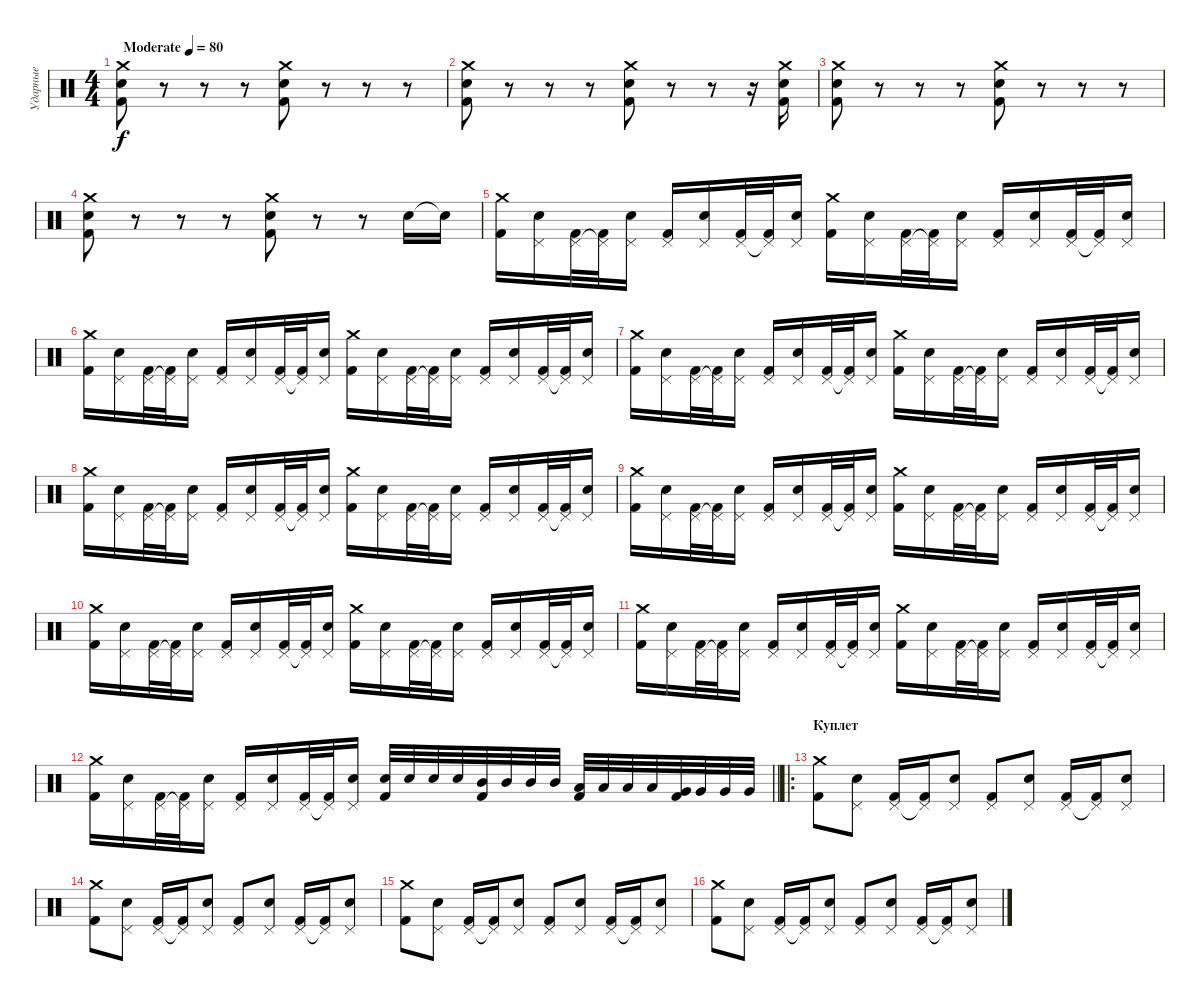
\track ("Ударные" "Ударные") {instrument percussion}
\staff {score}
\articulation defaults
\ts (4 4)
\tempo (80 "Moderate")
\clef neutral
\ks c
("Crash medium (hit)" "Kick (hit) 2" "Snare (hit) 2").8{dy f} r.8 r.8 r.8 ("Crash medium (hit)" "Kick (hit) 2" "Snare (hit) 2").8 r.8 r.8 r.8 |
("Crash medium (hit)" "Kick (hit) 2" "Snare (hit) 2").8 r.8 r.8 r.8 ("Crash medium (hit)" "Kick (hit) 2" "Snare (hit) 2").8 r.8 r.8 r.16 ("Crash medium (hit)" "Kick (hit) 2" "Snare (hit) 2").16 |
("Crash medium (hit)" "Kick (hit) 2" "Snare (hit) 2").8 r.8 r.8 r.8 ("Crash medium (hit)" "Kick (hit) 2" "Snare (hit) 2").8 r.8 r.8 r.8 |
("Crash medium (hit)" "Kick (hit) 2" "Snare (hit) 2").8 r.8 r.8 r.8 ("Crash medium (hit)" "Kick (hit) 2" "Snare (hit) 2").8 r.8 r.8 "Snare (hit) 2".16 "Electric Snare (hit)"{t}.16 |
("Crash medium (hit)" "Kick (hit) 2").16 ("Pedal Hi-Hat (hit)" "Snare (hit) 2").16 ("Pedal Hi-Hat (hit)" "Kick (hit) 2").32 ("Pedal Hi-Hat (hit)"{t} "Kick (hit) 2").32 ("Pedal Hi-Hat (hit)" "Snare (hit) 2").16 ("Pedal Hi-Hat (hit)" "Kick (hit) 2").16 ("Pedal Hi-Hat (hit)" "Snare (hit) 2").16 ("Pedal Hi-Hat (hit)" "Kick (hit) 2").32 ("Pedal Hi-Hat (hit)"{t} "Kick (hit) 2").32 ("Pedal Hi-Hat (hit)" "Snare (hit) 2").16 ("Crash medium (hit)" "Kick (hit) 2").16 ("Pedal Hi-Hat (hit)" "Snare (hit) 2").16 ("Pedal Hi-Hat (hit)" "Kick (hit) 2").32 ("Pedal Hi-Hat (hit)"{t} "Kick (hit) 2").32 ("Pedal Hi-Hat (hit)" "Snare (hit) 2").16 ("Pedal Hi-Hat (hit)" "Kick (hit) 2").16 ("Pedal Hi-Hat (hit)" "Snare (hit) 2").16 ("Pedal Hi-Hat (hit)" "Kick (hit) 2").32 ("Pedal Hi-Hat (hit)"{t} "Kick (hit) 2").32 ("Pedal Hi-Hat (hit)" "Snare (hit) 2").16 |
("Crash medium (hit)" "Kick (hit) 2").16 ("Pedal Hi-Hat (hit)" "Snare (hit) 2").16 ("Pedal Hi-Hat (hit)" "Kick (hit) 2").32 ("Pedal Hi-Hat (hit)"{t} "Kick (hit) 2").32 ("Pedal Hi-Hat (hit)" "Snare (hit) 2").16 ("Pedal Hi-Hat (hit)" "Kick (hit) 2").16 ("Pedal Hi-Hat (hit)" "Snare (hit) 2").16 ("Pedal Hi-Hat (hit)" "Kick (hit) 2").32 ("Pedal Hi-Hat (hit)"{t} "Kick (hit) 2").32 ("Pedal Hi-Hat (hit)" "Snare (hit) 2").16 ("Crash medium (hit)" "Kick (hit) 2").16 ("Pedal Hi-Hat (hit)" "Snare (hit) 2").16 ("Pedal Hi-Hat (hit)" "Kick (hit) 2").32 ("Pedal Hi-Hat (hit)"{t} "Kick (hit) 2").32 ("Pedal Hi-Hat (hit)" "Snare (hit) 2").16 ("Pedal Hi-Hat (hit)" "Kick (hit) 2").16 ("Pedal Hi-Hat (hit)" "Snare (hit) 2").16 ("Pedal Hi-Hat (hit)" "Kick (hit) 2").32 ("Pedal Hi-Hat (hit)"{t} "Kick (hit) 2").32 ("Pedal Hi-Hat (hit)" "Snare (hit) 2").16 |
("Crash medium (hit)" "Kick (hit) 2").16 ("Pedal Hi-Hat (hit)" "Snare (hit) 2").16 ("Pedal Hi-Hat (hit)" "Kick (hit) 2").32 ("Pedal Hi-Hat (hit)"{t} "Kick (hit) 2").32 ("Pedal Hi-Hat (hit)" "Snare (hit) 2").16 ("Pedal Hi-Hat (hit)" "Kick (hit) 2").16 ("Pedal Hi-Hat (hit)" "Snare (hit) 2").16 ("Pedal Hi-Hat (hit)" "Kick (hit) 2").32 ("Pedal Hi-Hat (hit)"{t} "Kick (hit) 2").32 ("Pedal Hi-Hat (hit)" "Snare (hit) 2").16 ("Crash medium (hit)" "Kick (hit) 2").16 ("Pedal Hi-Hat (hit)" "Snare (hit) 2").16 ("Pedal Hi-Hat (hit)" "Kick (hit) 2").32 ("Pedal Hi-Hat (hit)"{t} "Kick (hit) 2").32 ("Pedal Hi-Hat (hit)" "Snare (hit) 2").16 ("Pedal Hi-Hat (hit)" "Kick (hit) 2").16 ("Pedal Hi-Hat (hit)" "Snare (hit) 2").16 ("Pedal Hi-Hat (hit)" "Kick (hit) 2").32 ("Pedal Hi-Hat (hit)"{t} "Kick (hit) 2").32 ("Pedal Hi-Hat (hit)" "Snare (hit) 2").16 |
("Crash medium (hit)" "Kick (hit) 2").16 ("Pedal Hi-Hat (hit)" "Snare (hit) 2").16 ("Pedal Hi-Hat (hit)" "Kick (hit) 2").32 ("Pedal Hi-Hat (hit)"{t} "Kick (hit) 2").32 ("Pedal Hi-Hat (hit)" "Snare (hit) 2").16 ("Pedal Hi-Hat (hit)" "Kick (hit) 2").16 ("Pedal Hi-Hat (hit)" "Snare (hit) 2").16 ("Pedal Hi-Hat (hit)" "Kick (hit) 2").32 ("Pedal Hi-Hat (hit)"{t} "Kick (hit) 2").32 ("Pedal Hi-Hat (hit)" "Snare (hit) 2").16 ("Crash medium (hit)" "Kick (hit) 2").16 ("Pedal Hi-Hat (hit)" "Snare (hit) 2").16 ("Pedal Hi-Hat (hit)" "Kick (hit) 2").32 ("Pedal Hi-Hat (hit)"{t} "Kick (hit) 2").32 ("Pedal Hi-Hat (hit)" "Snare (hit) 2").16 ("Pedal Hi-Hat (hit)" "Kick (hit) 2").16 ("Pedal Hi-Hat (hit)" "Snare (hit) 2").16 ("Pedal Hi-Hat (hit)" "Kick (hit) 2").32 ("Pedal Hi-Hat (hit)"{t} "Kick (hit) 2").32 ("Pedal Hi-Hat (hit)" "Snare (hit) 2").16 |
("Crash medium (hit)" "Kick (hit) 2").16 ("Pedal Hi-Hat (hit)" "Snare (hit) 2").16 ("Pedal Hi-Hat (hit)" "Kick (hit) 2").32 ("Pedal Hi-Hat (hit)"{t} "Kick (hit) 2").32 ("Pedal Hi-Hat (hit)" "Snare (hit) 2").16 ("Pedal Hi-Hat (hit)" "Kick (hit) 2").16 ("Pedal Hi-Hat (hit)" "Snare (hit) 2").16 ("Pedal Hi-Hat (hit)" "Kick (hit) 2").32 ("Pedal Hi-Hat (hit)"{t} "Kick (hit) 2").32 ("Pedal Hi-Hat (hit)" "Snare (hit) 2").16 ("Crash medium (hit)" "Kick (hit) 2").16 ("Pedal Hi-Hat (hit)" "Snare (hit) 2").16 ("Pedal Hi-Hat (hit)" "Kick (hit) 2").32 ("Pedal Hi-Hat (hit)"{t} "Kick (hit) 2").32 ("Pedal Hi-Hat (hit)" "Snare (hit) 2").16 ("Pedal Hi-Hat (hit)" "Kick (hit) 2").16 ("Pedal Hi-Hat (hit)" "Snare (hit) 2").16 ("Pedal Hi-Hat (hit)" "Kick (hit) 2").32 ("Pedal Hi-Hat (hit)"{t} "Kick (hit) 2").32 ("Pedal Hi-Hat (hit)" "Snare (hit) 2").16 |
("Crash medium (hit)" "Kick (hit) 2").16 ("Pedal Hi-Hat (hit)" "Snare (hit) 2").16 ("Pedal Hi-Hat (hit)" "Kick (hit) 2").32 ("Pedal Hi-Hat (hit)"{t} "Kick (hit) 2").32 ("Pedal Hi-Hat (hit)" "Snare (hit) 2").16 ("Pedal Hi-Hat (hit)" "Kick (hit) 2").16 ("Pedal Hi-Hat (hit)" "Snare (hit) 2").16 ("Pedal Hi-Hat (hit)" "Kick (hit) 2").32 ("Pedal Hi-Hat (hit)"{t} "Kick (hit) 2").32 ("Pedal Hi-Hat (hit)" "Snare (hit) 2").16 ("Crash medium (hit)" "Kick (hit) 2").16 ("Pedal Hi-Hat (hit)" "Snare (hit) 2").16 ("Pedal Hi-Hat (hit)" "Kick (hit) 2").32 ("Pedal Hi-Hat (hit)"{t} "Kick (hit) 2").32 ("Pedal Hi-Hat (hit)" "Snare (hit) 2").16 ("Pedal Hi-Hat (hit)" "Kick (hit) 2").16 ("Pedal Hi-Hat (hit)" "Snare (hit) 2").16 ("Pedal Hi-Hat (hit)" "Kick (hit) 2").32 ("Pedal Hi-Hat (hit)"{t} "Kick (hit) 2").32 ("Pedal Hi-Hat (hit)" "Snare (hit) 2").16 |
("Crash medium (hit)" "Kick (hit) 2").16 ("Pedal Hi-Hat (hit)" "Snare (hit) 2").16 ("Pedal Hi-Hat (hit)" "Kick (hit) 2").32 ("Pedal Hi-Hat (hit)"{t} "Kick (hit) 2").32 ("Pedal Hi-Hat (hit)" "Snare (hit) 2").16 ("Pedal Hi-Hat (hit)" "Kick (hit) 2").16 ("Pedal Hi-Hat (hit)" "Snare (hit) 2").16 ("Pedal Hi-Hat (hit)" "Kick (hit) 2").32 ("Pedal Hi-Hat (hit)"{t} "Kick (hit) 2").32 ("Pedal Hi-Hat (hit)" "Snare (hit) 2").16 ("Crash medium (hit)" "Kick (hit) 2").16 ("Pedal Hi-Hat (hit)" "Snare (hit) 2").16 ("Pedal Hi-Hat (hit)" "Kick (hit) 2").32 ("Pedal Hi-Hat (hit)"{t} "Kick (hit) 2").32 ("Pedal Hi-Hat (hit)" "Snare (hit) 2").16 ("Pedal Hi-Hat (hit)" "Kick (hit) 2").16 ("Pedal Hi-Hat (hit)" "Snare (hit) 2").16 ("Pedal Hi-Hat (hit)" "Kick (hit) 2").32 ("Pedal Hi-Hat (hit)"{t} "Kick (hit) 2").32 ("Pedal Hi-Hat (hit)" "Snare (hit) 2").16 |
\barLineRight lightlight
("Crash medium (hit)" "Kick (hit) 2").16 ("Pedal Hi-Hat (hit)" "Snare (hit) 2").16 ("Pedal Hi-Hat (hit)" "Kick (hit) 2").32 ("Pedal Hi-Hat (hit)"{t} "Kick (hit) 2").32 ("Pedal Hi-Hat (hit)" "Snare (hit) 2").16 ("Pedal Hi-Hat (hit)" "Kick (hit) 2").16 ("Pedal Hi-Hat (hit)" "Snare (hit) 2").16 ("Pedal Hi-Hat (hit)" "Kick (hit) 2").32 ("Pedal Hi-Hat (hit)"{t} "Kick (hit) 2").32 ("Pedal Hi-Hat (hit)" "Snare (hit) 2").16 ("Snare (hit) 2" "Kick (hit) 2").32 "Snare (hit) 2".32 "Snare (hit) 2".32 "Snare (hit) 2".32 ("Mid Tom (hit)" "Kick (hit) 2").32 "Mid Tom (hit)".32 "Mid Tom (hit)".32 "Mid Tom (hit)".32 ("Low Tom (hit)" "Kick (hit) 2").32 "Low Tom (hit)".32 "Low Tom (hit)".32 "Low Tom (hit)".32 ("Very Low Tom (hit)" "Kick (hit) 2").32 "Very Low Tom (hit)".32 "Very Low Tom (hit)".32 "Very Low Tom (hit)".32 |
\ro
\section ("" "Куплет")
("Crash medium (hit)" "Kick (hit) 2").8 ("Pedal Hi-Hat (hit)" "Snare (hit) 2").8 ("Pedal Hi-Hat (hit)" "Kick (hit) 2").16 ("Pedal Hi-Hat (hit)"{t} "Kick (hit) 2").16 ("Pedal Hi-Hat (hit)" "Snare (hit) 2").8 ("Pedal Hi-Hat (hit)" "Kick (hit) 2").8 ("Pedal Hi-Hat (hit)" "Snare (hit) 2").8 ("Pedal Hi-Hat (hit)" "Kick (hit) 2").16 ("Pedal Hi-Hat (hit)"{t} "Kick (hit) 2").16 ("Pedal Hi-Hat (hit)" "Snare (hit) 2").8 |
("Crash medium (hit)" "Kick (hit) 2").8 ("Pedal Hi-Hat (hit)" "Snare (hit) 2").8 ("Pedal Hi-Hat (hit)" "Kick (hit) 2").16 ("Pedal Hi-Hat (hit)"{t} "Kick (hit) 2").16 ("Pedal Hi-Hat (hit)" "Snare (hit) 2").8 ("Pedal Hi-Hat (hit)" "Kick (hit) 2").8 ("Pedal Hi-Hat (hit)" "Snare (hit) 2").8 ("Pedal Hi-Hat (hit)" "Kick (hit) 2").16 ("Pedal Hi-Hat (hit)"{t} "Kick (hit) 2").16 ("Pedal Hi-Hat (hit)" "Snare (hit) 2").8 |
("Crash medium (hit)" "Kick (hit) 2").8 ("Pedal Hi-Hat (hit)" "Snare (hit) 2").8 ("Pedal Hi-Hat (hit)" "Kick (hit) 2").16 ("Pedal Hi-Hat (hit)"{t} "Kick (hit) 2").16 ("Pedal Hi-Hat (hit)" "Snare (hit) 2").8 ("Pedal Hi-Hat (hit)" "Kick (hit) 2").8 ("Pedal Hi-Hat (hit)" "Snare (hit) 2").8 ("Pedal Hi-Hat (hit)" "Kick (hit) 2").16 ("Pedal Hi-Hat (hit)"{t} "Kick (hit) 2").16 ("Pedal Hi-Hat (hit)" "Snare (hit) 2").8 |
("Crash medium (hit)" "Kick (hit) 2").8 ("Pedal Hi-Hat (hit)" "Snare (hit) 2").8 ("Pedal Hi-Hat (hit)" "Kick (hit) 2").16 ("Pedal Hi-Hat (hit)"{t} "Kick (hit) 2").16 ("Pedal Hi-Hat (hit)" "Snare (hit) 2").8 ("Pedal Hi-Hat (hit)" "Kick (hit) 2").8 ("Pedal Hi-Hat (hit)" "Snare (hit) 2").8 ("Pedal Hi-Hat (hit)" "Kick (hit) 2").16 ("Pedal Hi-Hat (hit)"{t} "Kick (hit) 2").16 ("Pedal Hi-Hat (hit)" "Snare (hit) 2").8
